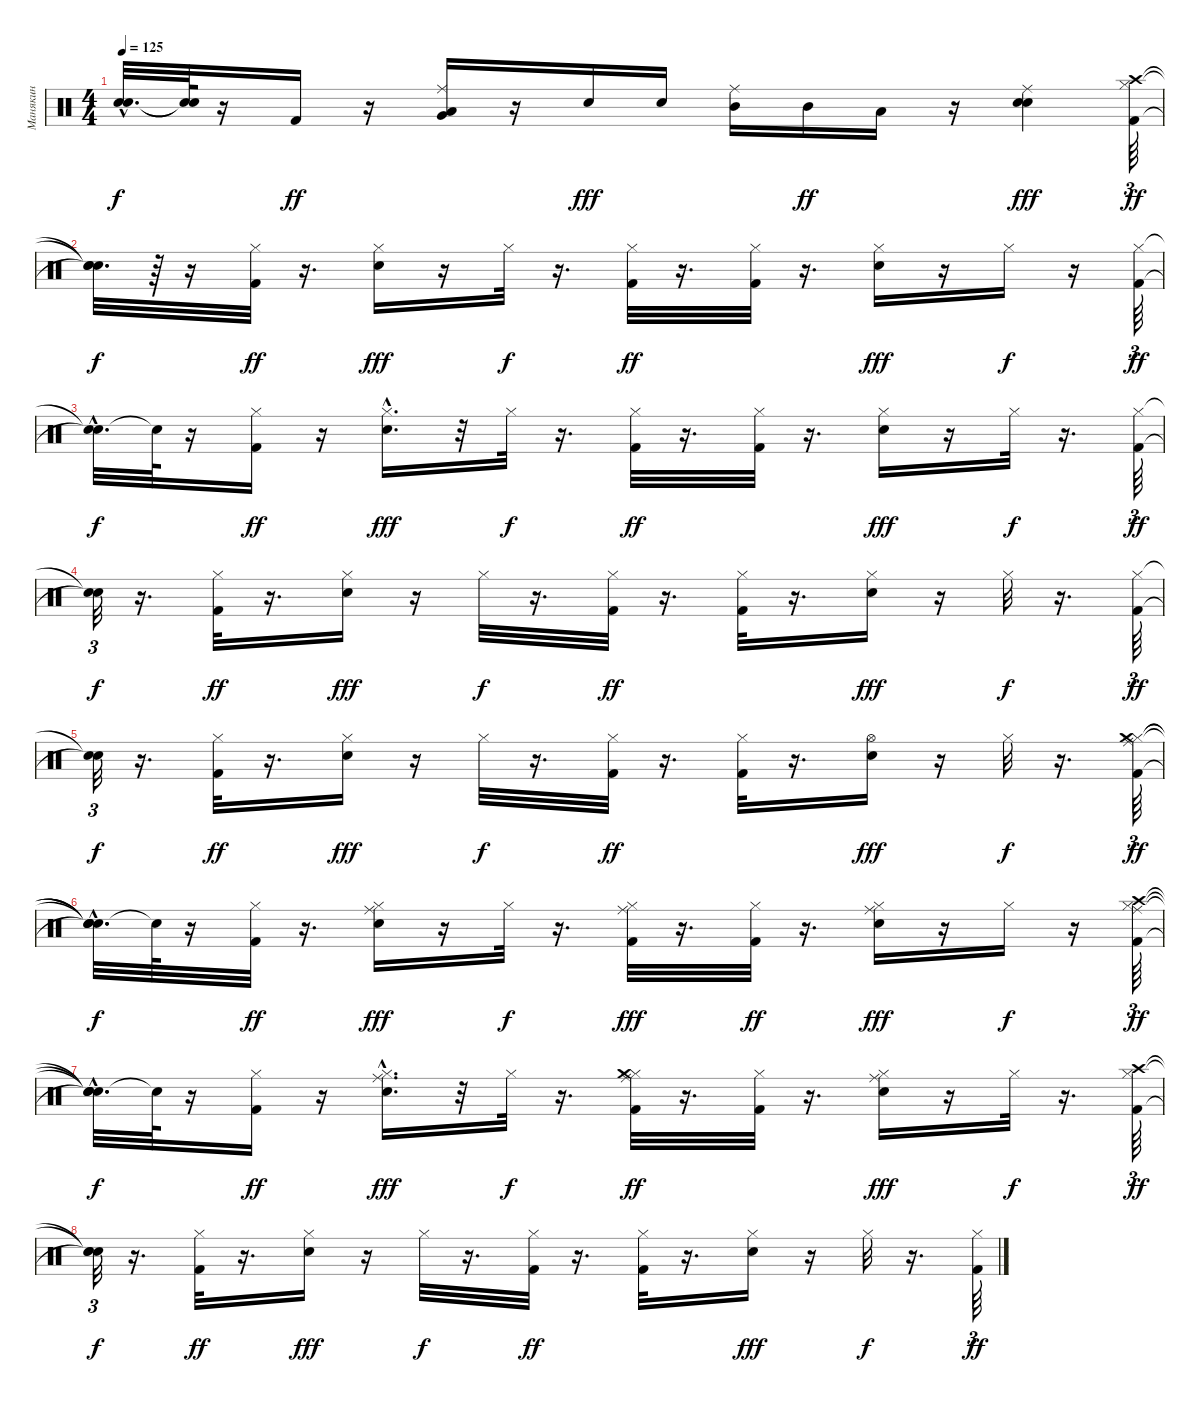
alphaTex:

\track ("Манякин" "Манякин") {instrument percussion}
\staff {score}
\articulation defaults
\ts (4 4)
\tempo 125
\clef neutral
\ks c
("Snare (hit)"{hac t} "Snare (hit)"{hac t}).32{d dy f} ("Snare (hit)"{t} "Snare (hit)"{t}).64 r.16 "Kick (hit) 2".16{dy ff} r.16 ("Very Low Tom (hit)" "Ride (middle)" "Low Tom (hit)").16 r.16 "Snare (hit) 2".16{dy fff} "Snare (hit) 2".16 ("Mid Tom (hit)" "Ride (middle)").16 "Mid Tom (hit)".16{dy ff} "Low Tom (hit)".16 r.16 ("Snare (hit) 2" "Snare (hit) 2" "Ride (middle)").4{dy fff} ("Kick (hit) 2" "Hi-Hat (closed)" "Crash high (hit)").64{tu (3 2) dy ff} |
("Snare (hit)"{t} "Snare (hit)"{t} "Snare (hit)"{t}).32{d dy f} r.64 r.16 ("Kick (hit) 2" "Hi-Hat (closed)").32{dy ff} r.16{d} ("Snare (hit) 2" "Hi-Hat (closed)").16{dy fff} r.16 "Hi-Hat (closed)".32{dy f} r.16{d} ("Kick (hit) 2" "Hi-Hat (closed)").32{dy ff} r.16{d} ("Kick (hit) 2" "Hi-Hat (closed)").32 r.16{d} ("Snare (hit) 2" "Hi-Hat (closed)").16{dy fff} r.16 "Hi-Hat (closed)".16{dy f} r.16 ("Kick (hit) 2" "Hi-Hat (closed)").64{tu (3 2) dy ff} |
("Snare (hit)"{t} "Snare (hit)"{hac t}).32{d dy f} "Snare (hit)"{t}.64 r.16 ("Kick (hit) 2" "Hi-Hat (closed)").16{dy ff} r.16 ("Snare (hit) 2"{hac} "Hi-Hat (closed)").16{d dy fff} r.32 "Hi-Hat (closed)".32{dy f} r.16{d} ("Kick (hit) 2" "Hi-Hat (closed)").32{dy ff} r.16{d} ("Kick (hit) 2" "Hi-Hat (closed)").32 r.16{d} ("Snare (hit) 2" "Hi-Hat (closed)").16{dy fff} r.16 "Hi-Hat (closed)".32{dy f} r.16{d} ("Kick (hit) 2" "Hi-Hat (closed)").64{tu (3 2) dy ff} |
("Snare (hit)"{t} "Snare (hit)"{t}).32{tu (3 2) dy f} r.16{d} ("Kick (hit) 2" "Hi-Hat (closed)").32{dy ff} r.16{d} ("Snare (hit) 2" "Hi-Hat (closed)").16{dy fff} r.16 "Hi-Hat (closed)".32{dy f} r.16{d} ("Kick (hit) 2" "Hi-Hat (closed)").32{dy ff} r.16{d} ("Kick (hit) 2" "Hi-Hat (closed)").32 r.16{d} ("Snare (hit) 2" "Hi-Hat (closed)").16{dy fff} r.16 "Hi-Hat (closed)".32{dy f} r.16{d} ("Kick (hit) 2" "Hi-Hat (closed)").64{tu (3 2) dy ff} |
("Snare (hit)"{t} "Snare (hit)"{t}).32{tu (3 2) dy f} r.16{d} ("Kick (hit) 2" "Hi-Hat (closed)").32{dy ff} r.16{d} ("Snare (hit) 2" "Hi-Hat (closed)").16{dy fff} r.16 "Hi-Hat (closed)".32{dy f} r.16{d} ("Kick (hit) 2" "Hi-Hat (closed)").32{dy ff} r.16{d} ("Kick (hit) 2" "Hi-Hat (closed)").32 r.16{d} ("Snare (hit) 2" "Hi-Hat (open)").16{dy fff} r.16 "Hi-Hat (closed)".32{dy f} r.16{d} ("Kick (hit) 2" "Hi-Hat (closed)" "Ride (middle)" "Crash medium (hit)").64{tu (3 2) dy ff} |
("Snare (hit)"{t} "Snare (hit)"{t} "Snare (hit)"{t} "Snare (hit)"{hac t}).32{d dy f} "Snare (hit)"{t}.64 r.16 ("Kick (hit) 2" "Hi-Hat (closed)").32{dy ff} r.16{d} ("Snare (hit) 2" "Hi-Hat (closed)" "Ride (middle)").16{dy fff} r.16 "Hi-Hat (closed)".32{dy f} r.16{d} ("Kick (hit) 2" "Hi-Hat (closed)" "Ride (middle)").32{dy fff} r.16{d} ("Kick (hit) 2" "Hi-Hat (closed)").32{dy ff} r.16{d} ("Snare (hit) 2" "Hi-Hat (closed)" "Ride (middle)").16{dy fff} r.16 "Hi-Hat (closed)".16{dy f} r.16 ("Kick (hit) 2" "Hi-Hat (closed)" "Ride (middle)" "Crash high (hit)").64{tu (3 2) dy ff} |
("Snare (hit)"{t} "Snare (hit)"{hac t} "Snare (hit)"{t} "Snare (hit)"{t}).32{d dy f} "Snare (hit)"{t}.64 r.16 ("Kick (hit) 2" "Hi-Hat (closed)").16{dy ff} r.16 ("Snare (hit) 2"{hac} "Hi-Hat (closed)" "Ride (middle)").16{d dy fff} r.32 "Hi-Hat (closed)".32{dy f} r.16{d} ("Kick (hit) 2" "Hi-Hat (closed)" "Ride (middle)" "Crash medium (hit)").32{dy ff} r.16{d} ("Kick (hit) 2" "Hi-Hat (closed)").32 r.16{d} ("Snare (hit) 2" "Hi-Hat (closed)" "Ride (middle)").16{dy fff} r.16 "Hi-Hat (closed)".32{dy f} r.16{d} ("Kick (hit) 2" "Hi-Hat (closed)" "Crash high (hit)").64{tu (3 2) dy ff} |
("Snare (hit)"{t} "Snare (hit)"{t} "Snare (hit)"{t}).32{tu (3 2) dy f} r.16{d} ("Kick (hit) 2" "Hi-Hat (closed)").32{dy ff} r.16{d} ("Snare (hit) 2" "Hi-Hat (closed)").16{dy fff} r.16 "Hi-Hat (closed)".32{dy f} r.16{d} ("Kick (hit) 2" "Hi-Hat (closed)").32{dy ff} r.16{d} ("Kick (hit) 2" "Hi-Hat (closed)").32 r.16{d} ("Snare (hit) 2" "Hi-Hat (closed)").16{dy fff} r.16 "Hi-Hat (closed)".32{dy f} r.16{d} ("Kick (hit) 2" "Hi-Hat (closed)").64{tu (3 2) dy ff}
